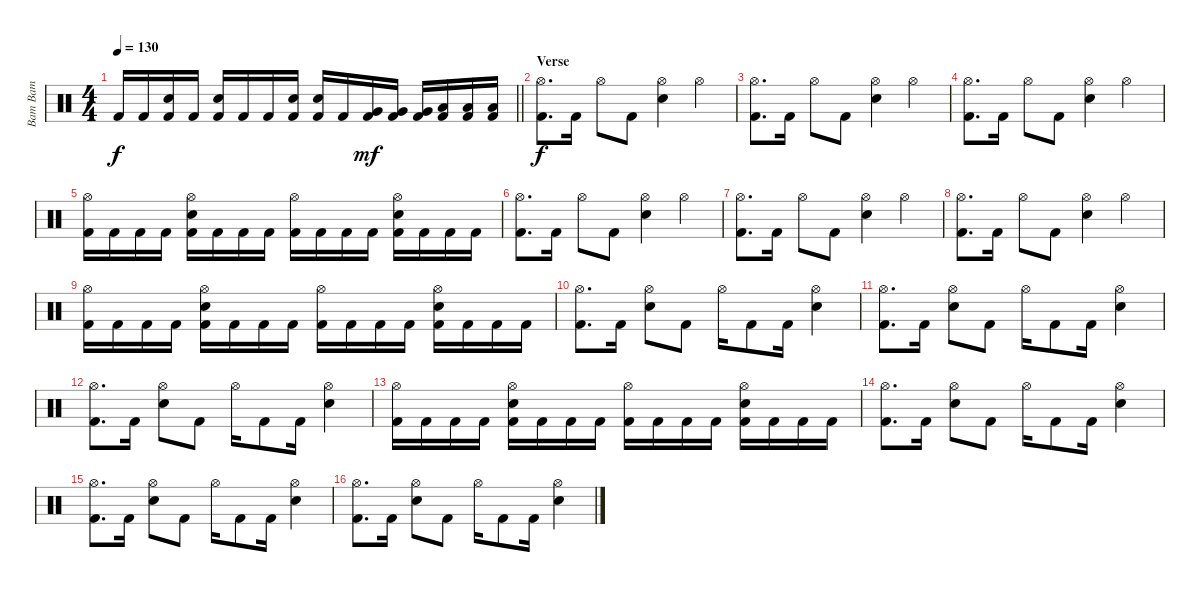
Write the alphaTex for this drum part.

\track ("Bam Bam" "Bam Bam") {instrument percussion}
\staff {score}
\articulation defaults
\ts (4 4)
\tempo 130
\clef neutral
\barLineRight lightlight
\ks c "Kick (hit) 2".16{dy f} "Kick (hit) 2".16
("Electric Snare (hit)" "Kick (hit) 2").16 "Kick (hit) 2".16 ("Electric Snare (hit)" "Kick (hit) 2").16 "Kick (hit) 2".16 "Kick (hit) 2".16 ("Electric Snare (hit)" "Kick (hit) 2").16 ("Electric Snare (hit)" "Kick (hit) 2").16 "Kick (hit) 2".16 ("Very Low Tom (hit)" "Kick (hit) 2").16{dy mf} ("Very Low Tom (hit)" "Kick (hit) 2").16 ("Very Low Tom (hit)" "Kick (hit) 2").16 ("Low Floor Tom (hit)" "Kick (hit) 2").16 ("Low Floor Tom (hit)" "Kick (hit) 2").16 ("Low Floor Tom (hit)" "Kick (hit) 2").16 |
\section ("" "Verse")
("Hi-Hat (open)" "Kick (hit) 2").8{d dy f} "Kick (hit) 2".16 "Hi-Hat (open)".8 "Kick (hit) 2".8 ("Hi-Hat (open)" "Electric Snare (hit)").4 "Hi-Hat (open)".4 |
("Hi-Hat (open)" "Kick (hit) 2").8{d} "Kick (hit) 2".16 "Hi-Hat (open)".8 "Kick (hit) 2".8 ("Hi-Hat (open)" "Electric Snare (hit)").4 "Hi-Hat (open)".4 |
("Hi-Hat (open)" "Kick (hit) 2").8{d} "Kick (hit) 2".16 "Hi-Hat (open)".8 "Kick (hit) 2".8 ("Hi-Hat (open)" "Electric Snare (hit)").4 "Hi-Hat (open)".4 |
("Hi-Hat (open)" "Kick (hit) 2").16 "Kick (hit) 2".16 "Kick (hit) 2".16 "Kick (hit) 2".16 ("Hi-Hat (open)" "Electric Snare (hit)" "Kick (hit) 2").16 "Kick (hit) 2".16 "Kick (hit) 2".16 "Kick (hit) 2".16 ("Hi-Hat (open)" "Kick (hit) 2").16 "Kick (hit) 2".16 "Kick (hit) 2".16 "Kick (hit) 2".16 ("Hi-Hat (open)" "Electric Snare (hit)" "Kick (hit) 2").16 "Kick (hit) 2".16 "Kick (hit) 2".16 "Kick (hit) 2".16 |
("Hi-Hat (open)" "Kick (hit) 2").8{d} "Kick (hit) 2".16 "Hi-Hat (open)".8 "Kick (hit) 2".8 ("Hi-Hat (open)" "Electric Snare (hit)").4 "Hi-Hat (open)".4 |
("Hi-Hat (open)" "Kick (hit) 2").8{d} "Kick (hit) 2".16 "Hi-Hat (open)".8 "Kick (hit) 2".8 ("Hi-Hat (open)" "Electric Snare (hit)").4 "Hi-Hat (open)".4 |
("Hi-Hat (open)" "Kick (hit) 2").8{d} "Kick (hit) 2".16 "Hi-Hat (open)".8 "Kick (hit) 2".8 ("Hi-Hat (open)" "Electric Snare (hit)").4 "Hi-Hat (open)".4 |
("Hi-Hat (open)" "Kick (hit) 2").16 "Kick (hit) 2".16 "Kick (hit) 2".16 "Kick (hit) 2".16 ("Hi-Hat (open)" "Electric Snare (hit)" "Kick (hit) 2").16 "Kick (hit) 2".16 "Kick (hit) 2".16 "Kick (hit) 2".16 ("Hi-Hat (open)" "Kick (hit) 2").16 "Kick (hit) 2".16 "Kick (hit) 2".16 "Kick (hit) 2".16 ("Hi-Hat (open)" "Electric Snare (hit)" "Kick (hit) 2").16 "Kick (hit) 2".16 "Kick (hit) 2".16 "Kick (hit) 2".16 |
("Hi-Hat (open)" "Kick (hit) 2").8{d} "Kick (hit) 2".16 ("Hi-Hat (open)" "Electric Snare (hit)").8 "Kick (hit) 2".8 "Hi-Hat (open)".16 "Kick (hit) 2".8 "Kick (hit) 2".16 ("Hi-Hat (open)" "Electric Snare (hit)").4 |
("Hi-Hat (open)" "Kick (hit) 2").8{d} "Kick (hit) 2".16 ("Hi-Hat (open)" "Electric Snare (hit)").8 "Kick (hit) 2".8 "Hi-Hat (open)".16 "Kick (hit) 2".8 "Kick (hit) 2".16 ("Hi-Hat (open)" "Electric Snare (hit)").4 |
("Hi-Hat (open)" "Kick (hit) 2").8{d} "Kick (hit) 2".16 ("Hi-Hat (open)" "Electric Snare (hit)").8 "Kick (hit) 2".8 "Hi-Hat (open)".16 "Kick (hit) 2".8 "Kick (hit) 2".16 ("Hi-Hat (open)" "Electric Snare (hit)").4 |
("Hi-Hat (open)" "Kick (hit) 2").16 "Kick (hit) 2".16 "Kick (hit) 2".16 "Kick (hit) 2".16 ("Hi-Hat (open)" "Electric Snare (hit)" "Kick (hit) 2").16 "Kick (hit) 2".16 "Kick (hit) 2".16 "Kick (hit) 2".16 ("Hi-Hat (open)" "Kick (hit) 2").16 "Kick (hit) 2".16 "Kick (hit) 2".16 "Kick (hit) 2".16 ("Hi-Hat (open)" "Electric Snare (hit)" "Kick (hit) 2").16 "Kick (hit) 2".16 "Kick (hit) 2".16 "Kick (hit) 2".16 |
("Hi-Hat (open)" "Kick (hit) 2").8{d} "Kick (hit) 2".16 ("Hi-Hat (open)" "Electric Snare (hit)").8 "Kick (hit) 2".8 "Hi-Hat (open)".16 "Kick (hit) 2".8 "Kick (hit) 2".16 ("Hi-Hat (open)" "Electric Snare (hit)").4 |
("Hi-Hat (open)" "Kick (hit) 2").8{d} "Kick (hit) 2".16 ("Hi-Hat (open)" "Electric Snare (hit)").8 "Kick (hit) 2".8 "Hi-Hat (open)".16 "Kick (hit) 2".8 "Kick (hit) 2".16 ("Hi-Hat (open)" "Electric Snare (hit)").4 |
("Hi-Hat (open)" "Kick (hit) 2").8{d} "Kick (hit) 2".16 ("Hi-Hat (open)" "Electric Snare (hit)").8 "Kick (hit) 2".8 "Hi-Hat (open)".16 "Kick (hit) 2".8 "Kick (hit) 2".16 ("Hi-Hat (open)" "Electric Snare (hit)").4
